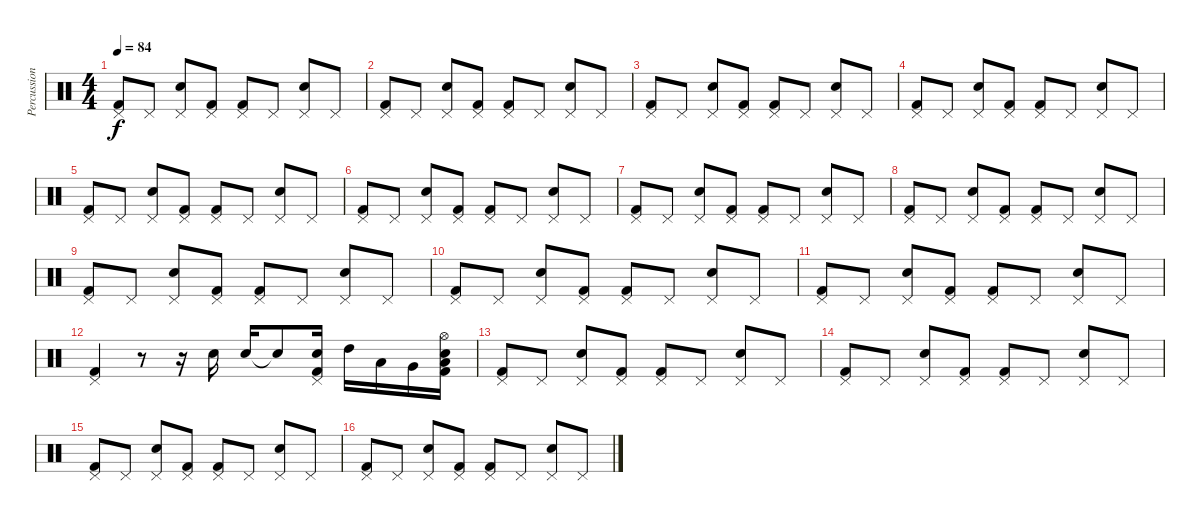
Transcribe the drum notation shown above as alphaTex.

\track ("Percussion" "Percussion") {instrument percussion}
\staff {score}
\articulation defaults
\ts (4 4)
\tempo 84
\clef neutral
\ks c
("Pedal Hi-Hat (hit)" "Kick (hit) 2").8{dy f} "Pedal Hi-Hat (hit)".8 ("Pedal Hi-Hat (hit)" "Snare (hit) 2").8 ("Pedal Hi-Hat (hit)" "Kick (hit) 2").8 ("Pedal Hi-Hat (hit)" "Kick (hit) 2").8 "Pedal Hi-Hat (hit)".8 ("Pedal Hi-Hat (hit)" "Snare (hit) 2").8 "Pedal Hi-Hat (hit)".8 |
("Pedal Hi-Hat (hit)" "Kick (hit) 2").8 "Pedal Hi-Hat (hit)".8 ("Pedal Hi-Hat (hit)" "Snare (hit) 2").8 ("Pedal Hi-Hat (hit)" "Kick (hit) 2").8 ("Pedal Hi-Hat (hit)" "Kick (hit) 2").8 "Pedal Hi-Hat (hit)".8 ("Pedal Hi-Hat (hit)" "Snare (hit) 2").8 "Pedal Hi-Hat (hit)".8 |
("Pedal Hi-Hat (hit)" "Kick (hit) 2").8 "Pedal Hi-Hat (hit)".8 ("Pedal Hi-Hat (hit)" "Snare (hit) 2").8 ("Pedal Hi-Hat (hit)" "Kick (hit) 2").8 ("Pedal Hi-Hat (hit)" "Kick (hit) 2").8 "Pedal Hi-Hat (hit)".8 ("Pedal Hi-Hat (hit)" "Snare (hit) 2").8 "Pedal Hi-Hat (hit)".8 |
("Pedal Hi-Hat (hit)" "Kick (hit) 2").8 "Pedal Hi-Hat (hit)".8 ("Pedal Hi-Hat (hit)" "Snare (hit) 2").8 ("Pedal Hi-Hat (hit)" "Kick (hit) 2").8 ("Pedal Hi-Hat (hit)" "Kick (hit) 2").8 "Pedal Hi-Hat (hit)".8 ("Pedal Hi-Hat (hit)" "Snare (hit) 2").8 "Pedal Hi-Hat (hit)".8 |
("Pedal Hi-Hat (hit)" "Kick (hit) 2").8 "Pedal Hi-Hat (hit)".8 ("Pedal Hi-Hat (hit)" "Snare (hit) 2").8 ("Pedal Hi-Hat (hit)" "Kick (hit) 2").8 ("Pedal Hi-Hat (hit)" "Kick (hit) 2").8 "Pedal Hi-Hat (hit)".8 ("Pedal Hi-Hat (hit)" "Snare (hit) 2").8 "Pedal Hi-Hat (hit)".8 |
("Pedal Hi-Hat (hit)" "Kick (hit) 2").8 "Pedal Hi-Hat (hit)".8 ("Pedal Hi-Hat (hit)" "Snare (hit) 2").8 ("Pedal Hi-Hat (hit)" "Kick (hit) 2").8 ("Pedal Hi-Hat (hit)" "Kick (hit) 2").8 "Pedal Hi-Hat (hit)".8 ("Pedal Hi-Hat (hit)" "Snare (hit) 2").8 "Pedal Hi-Hat (hit)".8 |
("Pedal Hi-Hat (hit)" "Kick (hit) 2").8 "Pedal Hi-Hat (hit)".8 ("Pedal Hi-Hat (hit)" "Snare (hit) 2").8 ("Pedal Hi-Hat (hit)" "Kick (hit) 2").8 ("Pedal Hi-Hat (hit)" "Kick (hit) 2").8 "Pedal Hi-Hat (hit)".8 ("Pedal Hi-Hat (hit)" "Snare (hit) 2").8 "Pedal Hi-Hat (hit)".8 |
("Pedal Hi-Hat (hit)" "Kick (hit) 2").8 "Pedal Hi-Hat (hit)".8 ("Pedal Hi-Hat (hit)" "Snare (hit) 2").8 ("Pedal Hi-Hat (hit)" "Kick (hit) 2").8 ("Pedal Hi-Hat (hit)" "Kick (hit) 2").8 "Pedal Hi-Hat (hit)".8 ("Pedal Hi-Hat (hit)" "Snare (hit) 2").8 "Pedal Hi-Hat (hit)".8 |
("Pedal Hi-Hat (hit)" "Kick (hit) 2").8 "Pedal Hi-Hat (hit)".8 ("Pedal Hi-Hat (hit)" "Snare (hit) 2").8 ("Pedal Hi-Hat (hit)" "Kick (hit) 2").8 ("Pedal Hi-Hat (hit)" "Kick (hit) 2").8 "Pedal Hi-Hat (hit)".8 ("Pedal Hi-Hat (hit)" "Snare (hit) 2").8 "Pedal Hi-Hat (hit)".8 |
("Pedal Hi-Hat (hit)" "Kick (hit) 2").8 "Pedal Hi-Hat (hit)".8 ("Pedal Hi-Hat (hit)" "Snare (hit) 2").8 ("Pedal Hi-Hat (hit)" "Kick (hit) 2").8 ("Pedal Hi-Hat (hit)" "Kick (hit) 2").8 "Pedal Hi-Hat (hit)".8 ("Pedal Hi-Hat (hit)" "Snare (hit) 2").8 "Pedal Hi-Hat (hit)".8 |
("Pedal Hi-Hat (hit)" "Kick (hit) 2").8 "Pedal Hi-Hat (hit)".8 ("Pedal Hi-Hat (hit)" "Snare (hit) 2").8 ("Pedal Hi-Hat (hit)" "Kick (hit) 2").8 ("Pedal Hi-Hat (hit)" "Kick (hit) 2").8 "Pedal Hi-Hat (hit)".8 ("Pedal Hi-Hat (hit)" "Snare (hit) 2").8 "Pedal Hi-Hat (hit)".8 |
("Pedal Hi-Hat (hit)" "Kick (hit) 2").4 r.8 r.16 "Snare (hit) 2".16 "Snare (hit) 2".16 "Snare (hit)"{t}.8 ("Pedal Hi-Hat (hit)" "Snare (hit) 2" "Kick (hit) 2").16 "High Tom (hit)".16 "Low Tom (hit)".16 "Very Low Tom (hit)".16 ("Hi-Hat (open)" "Snare (hit) 2" "Low Tom (hit)" "Kick (hit) 2").16 |
("Pedal Hi-Hat (hit)" "Kick (hit) 2").8 "Pedal Hi-Hat (hit)".8 ("Pedal Hi-Hat (hit)" "Snare (hit) 2").8 ("Pedal Hi-Hat (hit)" "Kick (hit) 2").8 ("Pedal Hi-Hat (hit)" "Kick (hit) 2").8 "Pedal Hi-Hat (hit)".8 ("Pedal Hi-Hat (hit)" "Snare (hit) 2").8 "Pedal Hi-Hat (hit)".8 |
("Pedal Hi-Hat (hit)" "Kick (hit) 2").8 "Pedal Hi-Hat (hit)".8 ("Pedal Hi-Hat (hit)" "Snare (hit) 2").8 ("Pedal Hi-Hat (hit)" "Kick (hit) 2").8 ("Pedal Hi-Hat (hit)" "Kick (hit) 2").8 "Pedal Hi-Hat (hit)".8 ("Pedal Hi-Hat (hit)" "Snare (hit) 2").8 "Pedal Hi-Hat (hit)".8 |
("Pedal Hi-Hat (hit)" "Kick (hit) 2").8 "Pedal Hi-Hat (hit)".8 ("Pedal Hi-Hat (hit)" "Snare (hit) 2").8 ("Pedal Hi-Hat (hit)" "Kick (hit) 2").8 ("Pedal Hi-Hat (hit)" "Kick (hit) 2").8 "Pedal Hi-Hat (hit)".8 ("Pedal Hi-Hat (hit)" "Snare (hit) 2").8 "Pedal Hi-Hat (hit)".8 |
("Pedal Hi-Hat (hit)" "Kick (hit) 2").8 "Pedal Hi-Hat (hit)".8 ("Pedal Hi-Hat (hit)" "Snare (hit) 2").8 ("Pedal Hi-Hat (hit)" "Kick (hit) 2").8 ("Pedal Hi-Hat (hit)" "Kick (hit) 2").8 "Pedal Hi-Hat (hit)".8 ("Pedal Hi-Hat (hit)" "Snare (hit) 2").8 "Pedal Hi-Hat (hit)".8
